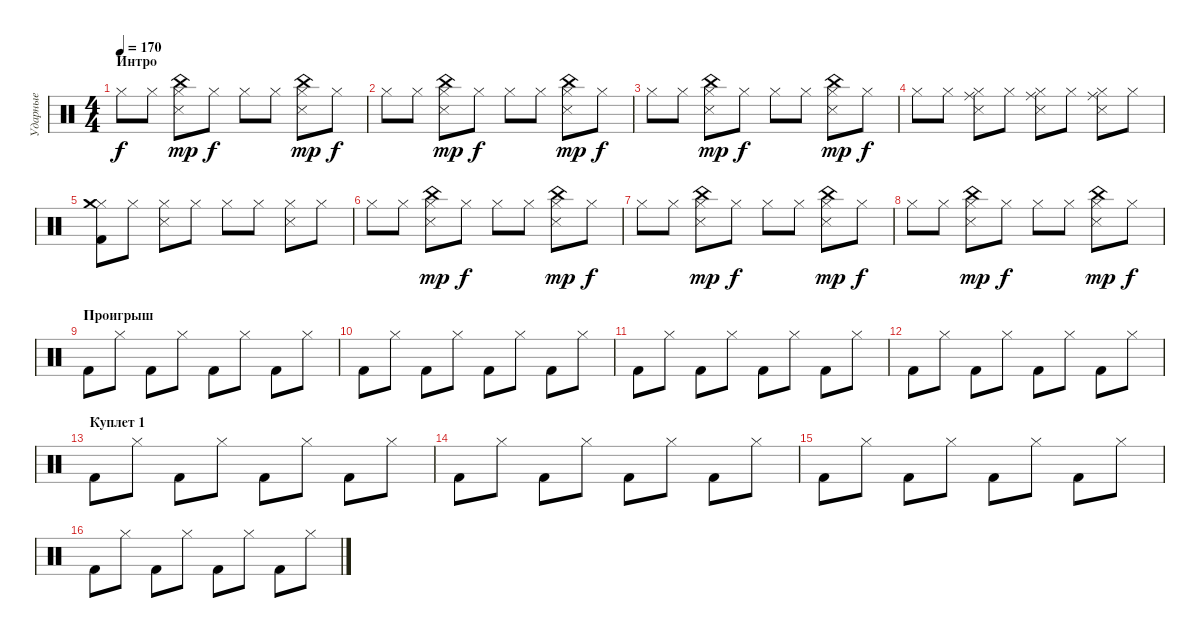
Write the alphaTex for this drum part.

\track ("Ударные" "Ударные") {instrument percussion}
\staff {score}
\articulation defaults
\ts (4 4)
\section ("" "Интро")
\tempo 170
\clef neutral
\ks c "Hi-Hat (closed)".8{dy f} "Hi-Hat (closed)".8
("Hi-Hat (closed)" "China (hit)" "Snare (side stick) 3").8{dy mp} "Hi-Hat (closed)".8{dy f} "Hi-Hat (closed)".8 "Hi-Hat (closed)".8 ("Hi-Hat (closed)" "China (hit)" "Snare (side stick) 3").8{dy mp} "Hi-Hat (closed)".8{dy f} |
"Hi-Hat (closed)".8 "Hi-Hat (closed)".8 ("Hi-Hat (closed)" "China (hit)" "Snare (side stick) 3").8{dy mp} "Hi-Hat (closed)".8{dy f} "Hi-Hat (closed)".8 "Hi-Hat (closed)".8 ("Hi-Hat (closed)" "China (hit)" "Snare (side stick) 3").8{dy mp} "Hi-Hat (closed)".8{dy f} |
"Hi-Hat (closed)".8 "Hi-Hat (closed)".8 ("Hi-Hat (closed)" "China (hit)" "Snare (side stick) 3").8{dy mp} "Hi-Hat (closed)".8{dy f} "Hi-Hat (closed)".8 "Hi-Hat (closed)".8 ("Hi-Hat (closed)" "China (hit)" "Snare (side stick) 3").8{dy mp} "Hi-Hat (closed)".8{dy f} |
"Hi-Hat (closed)".8 "Hi-Hat (closed)".8 ("Hi-Hat (closed)" "Ride (middle)" "Snare (side stick) 3").8 "Hi-Hat (closed)".8 ("Hi-Hat (closed)" "Ride (middle)" "Snare (side stick) 3").8 "Hi-Hat (closed)".8 ("Hi-Hat (closed)" "Ride (middle)" "Snare (side stick) 3").8 "Hi-Hat (closed)".8 |
("Hi-Hat (closed)" "Crash medium (hit)" "Kick (hit) 2").8 "Hi-Hat (closed)".8 ("Hi-Hat (closed)" "Snare (side stick) 3").8 "Hi-Hat (closed)".8 "Hi-Hat (closed)".8 "Hi-Hat (closed)".8 ("Hi-Hat (closed)" "Snare (side stick) 3").8 "Hi-Hat (closed)".8 |
"Hi-Hat (closed)".8 "Hi-Hat (closed)".8 ("Hi-Hat (closed)" "China (hit)" "Snare (side stick) 3").8{dy mp} "Hi-Hat (closed)".8{dy f} "Hi-Hat (closed)".8 "Hi-Hat (closed)".8 ("Hi-Hat (closed)" "China (hit)" "Snare (side stick) 3").8{dy mp} "Hi-Hat (closed)".8{dy f} |
"Hi-Hat (closed)".8 "Hi-Hat (closed)".8 ("Hi-Hat (closed)" "China (hit)" "Snare (side stick) 3").8{dy mp} "Hi-Hat (closed)".8{dy f} "Hi-Hat (closed)".8 "Hi-Hat (closed)".8 ("Hi-Hat (closed)" "China (hit)" "Snare (side stick) 3").8{dy mp} "Hi-Hat (closed)".8{dy f} |
"Hi-Hat (closed)".8 "Hi-Hat (closed)".8 ("Hi-Hat (closed)" "China (hit)" "Snare (side stick) 3").8{dy mp} "Hi-Hat (closed)".8{dy f} "Hi-Hat (closed)".8 "Hi-Hat (closed)".8 ("Hi-Hat (closed)" "China (hit)" "Snare (side stick) 3").8{dy mp} "Hi-Hat (closed)".8{dy f} |
\section ("" "Проигрыш")
"Kick (hit) 2".8 "Hi-Hat (closed)".8 "Kick (hit) 2".8 "Hi-Hat (closed)".8 "Kick (hit) 2".8 "Hi-Hat (closed)".8 "Kick (hit) 2".8 "Hi-Hat (closed)".8 |
"Kick (hit) 2".8 "Hi-Hat (closed)".8 "Kick (hit) 2".8 "Hi-Hat (closed)".8 "Kick (hit) 2".8 "Hi-Hat (closed)".8 "Kick (hit) 2".8 "Hi-Hat (closed)".8 |
"Kick (hit) 2".8 "Hi-Hat (closed)".8 "Kick (hit) 2".8 "Hi-Hat (closed)".8 "Kick (hit) 2".8 "Hi-Hat (closed)".8 "Kick (hit) 2".8 "Hi-Hat (closed)".8 |
"Kick (hit) 2".8 "Hi-Hat (closed)".8 "Kick (hit) 2".8 "Hi-Hat (closed)".8 "Kick (hit) 2".8 "Hi-Hat (closed)".8 "Kick (hit) 2".8 "Hi-Hat (closed)".8 |
\section ("" "Куплет 1")
"Kick (hit) 2".8 "Hi-Hat (closed)".8 "Kick (hit) 2".8 "Hi-Hat (closed)".8 "Kick (hit) 2".8 "Hi-Hat (closed)".8 "Kick (hit) 2".8 "Hi-Hat (closed)".8 |
"Kick (hit) 2".8 "Hi-Hat (closed)".8 "Kick (hit) 2".8 "Hi-Hat (closed)".8 "Kick (hit) 2".8 "Hi-Hat (closed)".8 "Kick (hit) 2".8 "Hi-Hat (closed)".8 |
"Kick (hit) 2".8 "Hi-Hat (closed)".8 "Kick (hit) 2".8 "Hi-Hat (closed)".8 "Kick (hit) 2".8 "Hi-Hat (closed)".8 "Kick (hit) 2".8 "Hi-Hat (closed)".8 |
"Kick (hit) 2".8 "Hi-Hat (closed)".8 "Kick (hit) 2".8 "Hi-Hat (closed)".8 "Kick (hit) 2".8 "Hi-Hat (closed)".8 "Kick (hit) 2".8 "Hi-Hat (closed)".8
